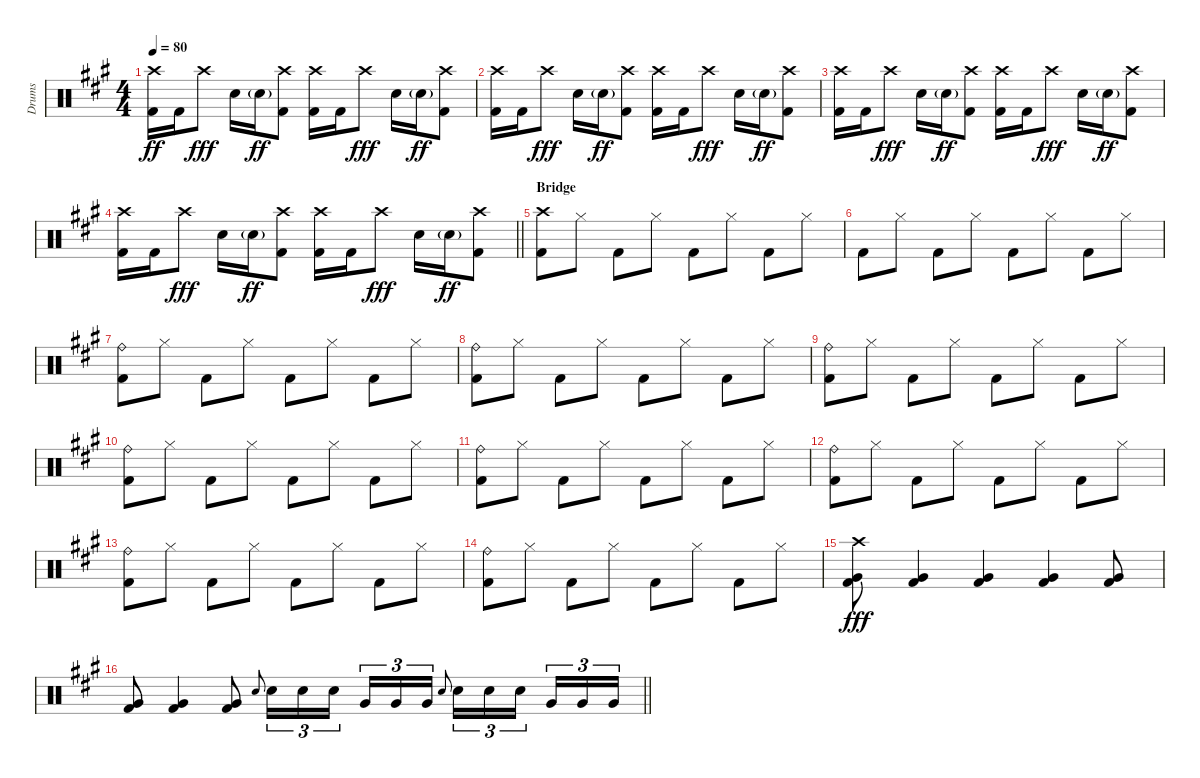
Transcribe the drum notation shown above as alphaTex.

\track ("Drums" "Drums") {instrument percussion}
\staff {score}
\articulation defaults
\ts (4 4)
\tempo 80
\clef neutral
\ks f#minor
("Crash high (hit)" "Kick (hit) 2").16{dy ff} "Kick (hit) 2".16 "Crash high (hit)".8{dy fff} "Electric Snare (hit)".16 "Electric Snare (hit)"{g}.16{dy ff} ("Crash high (hit)" "Kick (hit) 2").8 ("Crash high (hit)" "Kick (hit) 2").16 "Kick (hit) 2".16 "Crash high (hit)".8{dy fff} "Electric Snare (hit)".16 "Electric Snare (hit)"{g}.16{dy ff} ("Crash high (hit)" "Kick (hit) 2").8 |
("Crash high (hit)" "Kick (hit) 2").16 "Kick (hit) 2".16 "Crash high (hit)".8{dy fff} "Electric Snare (hit)".16 "Electric Snare (hit)"{g}.16{dy ff} ("Crash high (hit)" "Kick (hit) 2").8 ("Crash high (hit)" "Kick (hit) 2").16 "Kick (hit) 2".16 "Crash high (hit)".8{dy fff} "Electric Snare (hit)".16 "Electric Snare (hit)"{g}.16{dy ff} ("Crash high (hit)" "Kick (hit) 2").8 |
("Crash high (hit)" "Kick (hit) 2").16 "Kick (hit) 2".16 "Crash high (hit)".8{dy fff} "Electric Snare (hit)".16 "Electric Snare (hit)"{g}.16{dy ff} ("Crash high (hit)" "Kick (hit) 2").8 ("Crash high (hit)" "Kick (hit) 2").16 "Kick (hit) 2".16 "Crash high (hit)".8{dy fff} "Electric Snare (hit)".16 "Electric Snare (hit)"{g}.16{dy ff} ("Crash high (hit)" "Kick (hit) 2").8 |
\barLineRight lightlight
("Crash high (hit)" "Kick (hit) 2").16 "Kick (hit) 2".16 "Crash high (hit)".8{dy fff} "Electric Snare (hit)".16 "Electric Snare (hit)"{g}.16{dy ff} ("Crash high (hit)" "Kick (hit) 2").8 ("Crash high (hit)" "Kick (hit) 2").16 "Kick (hit) 2".16 "Crash high (hit)".8{dy fff} "Electric Snare (hit)".16 "Electric Snare (hit)"{g}.16{dy ff} ("Crash high (hit)" "Kick (hit) 2").8 |
\section ("" "Bridge")
("Crash high (hit)" "Kick (hit) 2").8 "Hi-Hat (closed)".8 "Kick (hit) 2".8 "Hi-Hat (closed)".8 "Kick (hit) 2".8 "Hi-Hat (closed)".8 "Kick (hit) 2".8 "Hi-Hat (closed)".8 |
"Kick (hit) 2".8 "Hi-Hat (closed)".8 "Kick (hit) 2".8 "Hi-Hat (closed)".8 "Kick (hit) 2".8 "Hi-Hat (closed)".8 "Kick (hit) 2".8 "Hi-Hat (closed)".8 |
("Ride (bell)" "Kick (hit) 2").8 "Hi-Hat (closed)".8 "Kick (hit) 2".8 "Hi-Hat (closed)".8 "Kick (hit) 2".8 "Hi-Hat (closed)".8 "Kick (hit) 2".8 "Hi-Hat (closed)".8 |
("Ride (bell)" "Kick (hit) 2").8 "Hi-Hat (closed)".8 "Kick (hit) 2".8 "Hi-Hat (closed)".8 "Kick (hit) 2".8 "Hi-Hat (closed)".8 "Kick (hit) 2".8 "Hi-Hat (closed)".8 |
("Ride (bell)" "Kick (hit) 2").8 "Hi-Hat (closed)".8 "Kick (hit) 2".8 "Hi-Hat (closed)".8 "Kick (hit) 2".8 "Hi-Hat (closed)".8 "Kick (hit) 2".8 "Hi-Hat (closed)".8 |
("Ride (bell)" "Kick (hit) 2").8 "Hi-Hat (closed)".8 "Kick (hit) 2".8 "Hi-Hat (closed)".8 "Kick (hit) 2".8 "Hi-Hat (closed)".8 "Kick (hit) 2".8 "Hi-Hat (closed)".8 |
("Ride (bell)" "Kick (hit) 2").8 "Hi-Hat (closed)".8 "Kick (hit) 2".8 "Hi-Hat (closed)".8 "Kick (hit) 2".8 "Hi-Hat (closed)".8 "Kick (hit) 2".8 "Hi-Hat (closed)".8 |
("Ride (bell)" "Kick (hit) 2").8 "Hi-Hat (closed)".8 "Kick (hit) 2".8 "Hi-Hat (closed)".8 "Kick (hit) 2".8 "Hi-Hat (closed)".8 "Kick (hit) 2".8 "Hi-Hat (closed)".8 |
("Ride (bell)" "Kick (hit) 2").8 "Hi-Hat (closed)".8 "Kick (hit) 2".8 "Hi-Hat (closed)".8 "Kick (hit) 2".8 "Hi-Hat (closed)".8 "Kick (hit) 2".8 "Hi-Hat (closed)".8 |
("Ride (bell)" "Kick (hit) 2").8 "Hi-Hat (closed)".8 "Kick (hit) 2".8 "Hi-Hat (closed)".8 "Kick (hit) 2".8 "Hi-Hat (closed)".8 "Kick (hit) 2".8 "Hi-Hat (closed)".8 |
("Crash high (hit)" "Very Low Tom (hit)" "Kick (hit) 2").8{dy fff} ("Very Low Tom (hit)" "Kick (hit) 2").4 ("Very Low Tom (hit)" "Kick (hit) 2").4 ("Very Low Tom (hit)" "Kick (hit) 2").4 ("Very Low Tom (hit)" "Kick (hit) 2").8 |
\barLineRight lightlight
("Very Low Tom (hit)" "Kick (hit) 2").8 ("Very Low Tom (hit)" "Kick (hit) 2").4 ("Very Low Tom (hit)" "Kick (hit) 2").8 "Electric Snare (hit)".8{gr onbeat} "Electric Snare (hit)".16{tu (3 2)} "Electric Snare (hit)".16{tu (3 2)} "Electric Snare (hit)".16{tu (3 2) beam splitsecondary} "Very Low Tom (hit)".16{tu (3 2)} "Very Low Tom (hit)".16{tu (3 2)} "Very Low Tom (hit)".16{tu (3 2)} "Electric Snare (hit)".8{gr onbeat} "Electric Snare (hit)".16{tu (3 2)} "Electric Snare (hit)".16{tu (3 2)} "Electric Snare (hit)".16{tu (3 2) beam splitsecondary} "Very Low Tom (hit)".16{tu (3 2)} "Very Low Tom (hit)".16{tu (3 2)} "Very Low Tom (hit)".16{tu (3 2)}
